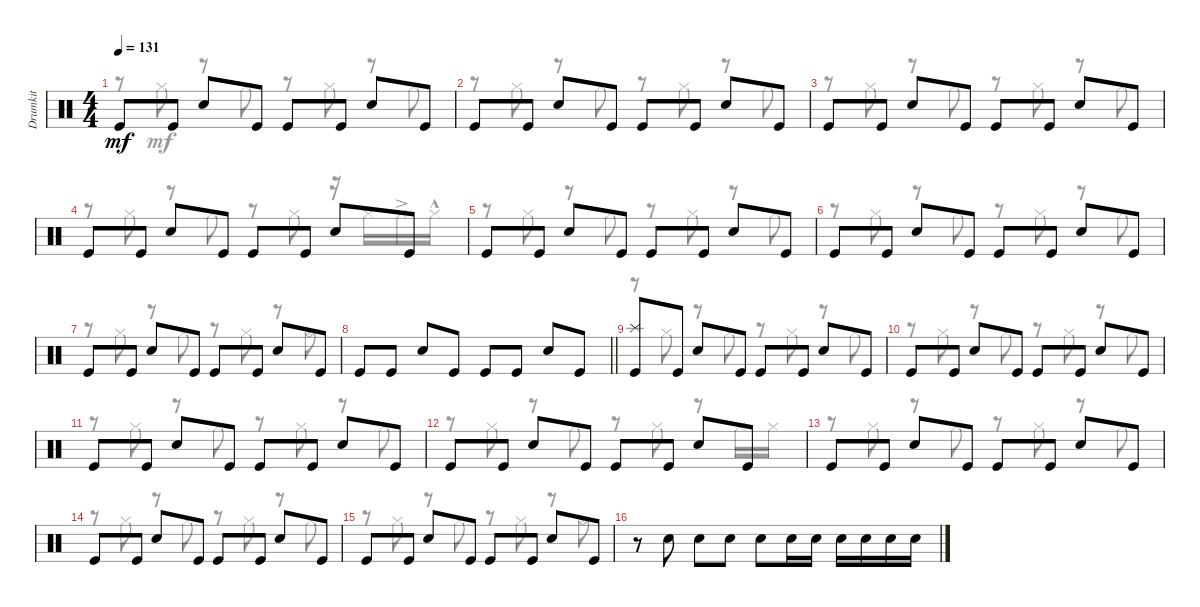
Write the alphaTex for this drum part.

\track ("Drumkit" "Drumkit") {instrument percussion}
\staff {score}
\articulation defaults
\voice
\ts (4 4)
\tempo 131
\clef neutral
\ks c "Kick (hit)".8{dy mf} "Kick (hit)".8 "Snare (hit) 2".8 "Kick (hit)".8 "Kick (hit)".8 "Kick (hit)".8 "Snare (hit) 2".8 "Kick (hit)".8
|
"Kick (hit)".8 "Kick (hit)".8 "Snare (hit) 2".8 "Kick (hit)".8 "Kick (hit)".8 "Kick (hit)".8 "Snare (hit) 2".8 "Kick (hit)".8 |
"Kick (hit)".8 "Kick (hit)".8 "Snare (hit) 2".8 "Kick (hit)".8 "Kick (hit)".8 "Kick (hit)".8 "Snare (hit) 2".8 "Kick (hit)".8 |
"Kick (hit)".8 "Kick (hit)".8 "Snare (hit) 2".8 "Kick (hit)".8 "Kick (hit)".8 "Kick (hit)".8 "Snare (hit) 2".8 "Kick (hit)".8 |
"Kick (hit)".8 "Kick (hit)".8 "Snare (hit) 2".8 "Kick (hit)".8 "Kick (hit)".8 "Kick (hit)".8 "Snare (hit) 2".8 "Kick (hit)".8 |
"Kick (hit)".8 "Kick (hit)".8 "Snare (hit) 2".8 "Kick (hit)".8 "Kick (hit)".8 "Kick (hit)".8 "Snare (hit) 2".8 "Kick (hit)".8 |
"Kick (hit)".8 "Kick (hit)".8 "Snare (hit) 2".8 "Kick (hit)".8 "Kick (hit)".8 "Kick (hit)".8 "Snare (hit) 2".8 "Kick (hit)".8 |
\barLineRight lightlight "Kick (hit)".8 "Kick (hit)".8 "Snare (hit) 2".8 "Kick (hit)".8 "Kick (hit)".8 "Kick (hit)".8 "Snare (hit) 2".8 "Kick (hit)".8
|
("Kick (hit)" "Splash (hit)").8 "Kick (hit)".8 "Snare (hit) 2".8 "Kick (hit)".8 "Kick (hit)".8 "Kick (hit)".8 "Snare (hit) 2".8 "Kick (hit)".8 |
"Kick (hit)".8 "Kick (hit)".8 "Snare (hit) 2".8 "Kick (hit)".8 "Kick (hit)".8 "Kick (hit)".8 "Snare (hit) 2".8 "Kick (hit)".8 |
"Kick (hit)".8 "Kick (hit)".8 "Snare (hit) 2".8 "Kick (hit)".8 "Kick (hit)".8 "Kick (hit)".8 "Snare (hit) 2".8 "Kick (hit)".8 |
"Kick (hit)".8 "Kick (hit)".8 "Snare (hit) 2".8 "Kick (hit)".8 "Kick (hit)".8 "Kick (hit)".8 "Snare (hit) 2".8 "Kick (hit)".8 |
"Kick (hit)".8 "Kick (hit)".8 "Snare (hit) 2".8 "Kick (hit)".8 "Kick (hit)".8 "Kick (hit)".8 "Snare (hit) 2".8 "Kick (hit)".8 |
"Kick (hit)".8 "Kick (hit)".8 "Snare (hit) 2".8 "Kick (hit)".8 "Kick (hit)".8 "Kick (hit)".8 "Snare (hit) 2".8 "Kick (hit)".8 |
"Kick (hit)".8 "Kick (hit)".8 "Snare (hit) 2".8 "Kick (hit)".8 "Kick (hit)".8 "Kick (hit)".8 "Snare (hit) 2".8 "Kick (hit)".8 |
r.8 "Snare (hit) 2".8 "Snare (hit) 2".8 "Snare (hit) 2".8 "Snare (hit) 2".8 "Snare (hit) 2".16 "Snare (hit) 2".16 "Snare (hit) 2".16 "Snare (hit) 2".16 "Snare (hit) 2".16 "Snare (hit) 2".16
\voice
\clef neutral
\ottava regular
\simile none
\ks c
r.8{dy mf} "Hi-Hat (closed)".8 r.8 "Hi-Hat (closed)".8 r.8 "Hi-Hat (closed)".8 r.8 "Hi-Hat (closed)".8 |
r.8 "Hi-Hat (closed)".8 r.8 "Hi-Hat (closed)".8 r.8 "Hi-Hat (closed)".8 r.8 "Hi-Hat (closed)".8 |
r.8 "Hi-Hat (closed)".8 r.8 "Hi-Hat (closed)".8 r.8 "Hi-Hat (closed)".8 r.8 "Hi-Hat (closed)".8 |
r.8 "Hi-Hat (closed)".8 r.8 "Hi-Hat (closed)".8 r.8 "Hi-Hat (closed)".8 r.16 "Hi-Hat (closed)".16 "Hi-Hat (closed)"{ac}.16 "Hi-Hat (closed)"{hac}.16 |
r.8 "Hi-Hat (closed)".8 r.8 "Hi-Hat (closed)".8 r.8 "Hi-Hat (closed)".8 r.8 "Hi-Hat (closed)".8 |
r.8 "Hi-Hat (closed)".8 r.8 "Hi-Hat (closed)".8 r.8 "Hi-Hat (closed)".8 r.8 "Hi-Hat (closed)".8 |
r.8 "Hi-Hat (closed)".8 r.8 "Hi-Hat (closed)".8 r.8 "Hi-Hat (closed)".8 r.8 "Hi-Hat (open)".8 |
\barLineRight lightlight
|
r.8 "Hi-Hat (closed)".8 r.8 "Hi-Hat (closed)".8 r.8 "Hi-Hat (closed)".8 r.8 "Hi-Hat (closed)".8 |
r.8 "Hi-Hat (closed)".8 r.8 "Hi-Hat (closed)".8 r.8 "Hi-Hat (closed)".8 r.8 "Hi-Hat (closed)".8 |
r.8 "Hi-Hat (closed)".8 r.8 "Hi-Hat (closed)".8 r.8 "Hi-Hat (closed)".8 r.8 "Hi-Hat (closed)".8 |
r.8 "Hi-Hat (closed)".8 r.8 "Hi-Hat (closed)".8 r.8 "Hi-Hat (closed)".8 r.8 "Hi-Hat (closed)".16 "Hi-Hat (closed)".16 |
r.8 "Hi-Hat (closed)".8 r.8 "Hi-Hat (closed)".8 r.8 "Hi-Hat (closed)".8 r.8 "Hi-Hat (closed)".8 |
r.8 "Hi-Hat (closed)".8 r.8 "Hi-Hat (closed)".8 r.8 "Hi-Hat (closed)".8 r.8 "Hi-Hat (closed)".8 |
r.8 "Hi-Hat (closed)".8 r.8 "Hi-Hat (closed)".8 r.8 "Hi-Hat (closed)".8 r.8 "Hi-Hat (open)".8 |
